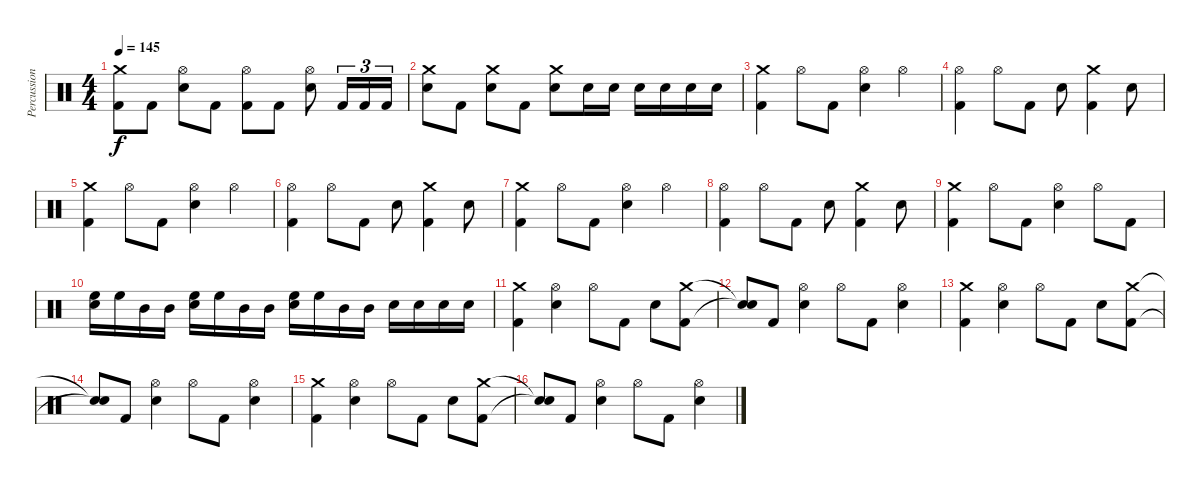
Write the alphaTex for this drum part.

\track ("Percussion" "Percussion") {instrument percussion}
\staff {score}
\articulation defaults
\ts (4 4)
\tempo 145
\clef neutral
\ks c
("Crash medium (hit)" "Kick (hit) 2").8{dy f} "Kick (hit) 2".8 ("Hi-Hat (open)" "Snare (hit) 2").8 "Kick (hit) 2".8 ("Hi-Hat (open)" "Kick (hit) 2").8 "Kick (hit) 2".8 ("Hi-Hat (open)" "Snare (hit) 2").8 "Kick (hit) 2".16{tu (3 2)} "Kick (hit) 2".16{tu (3 2)} "Kick (hit) 2".16{tu (3 2)} |
("Crash medium (hit)" "Snare (hit) 2").8 "Kick (hit) 2".8 ("Crash medium (hit)" "Snare (hit) 2").8 "Kick (hit) 2".8 ("Crash medium (hit)" "Snare (hit) 2").8 "Snare (hit) 2".16 "Snare (hit) 2".16 "Snare (hit) 2".16 "Snare (hit) 2".16 "Snare (hit) 2".16 "Snare (hit) 2".16 |
("Crash medium (hit)" "Kick (hit) 2").4 "Hi-Hat (open)".8 "Kick (hit) 2".8 ("Hi-Hat (open)" "Snare (hit) 2").4 "Hi-Hat (open)".4 |
("Hi-Hat (open)" "Kick (hit) 2").4 "Hi-Hat (open)".8 "Kick (hit) 2".8 "Snare (hit) 2".8 ("Crash medium (hit)" "Kick (hit) 2").4 "Snare (hit) 2".8 |
("Crash medium (hit)" "Kick (hit) 2").4 "Hi-Hat (open)".8 "Kick (hit) 2".8 ("Hi-Hat (open)" "Snare (hit) 2").4 "Hi-Hat (open)".4 |
("Hi-Hat (open)" "Kick (hit) 2").4 "Hi-Hat (open)".8 "Kick (hit) 2".8 "Snare (hit) 2".8 ("Crash medium (hit)" "Kick (hit) 2").4 "Snare (hit) 2".8 |
("Crash medium (hit)" "Kick (hit) 2").4 "Hi-Hat (open)".8 "Kick (hit) 2".8 ("Hi-Hat (open)" "Snare (hit) 2").4 "Hi-Hat (open)".4 |
("Hi-Hat (open)" "Kick (hit) 2").4 "Hi-Hat (open)".8 "Kick (hit) 2".8 "Snare (hit) 2".8 ("Crash medium (hit)" "Kick (hit) 2").4 "Snare (hit) 2".8 |
("Crash medium (hit)" "Kick (hit) 2").4 "Hi-Hat (open)".8 "Kick (hit) 2".8 ("Hi-Hat (open)" "Snare (hit) 2").4 "Hi-Hat (open)".8 "Kick (hit) 2".8 |
("High Floor Tom (hit)" "Snare (hit) 2").16 "High Floor Tom (hit)".16 "Mid Tom (hit)".16 "Mid Tom (hit)".16 ("High Floor Tom (hit)" "Snare (hit) 2").16 "High Floor Tom (hit)".16 "Mid Tom (hit)".16 "Mid Tom (hit)".16 ("High Floor Tom (hit)" "Snare (hit) 2").16 "High Floor Tom (hit)".16 "Mid Tom (hit)".16 "Mid Tom (hit)".16 "Snare (hit) 2".16 "Snare (hit) 2".16 "Snare (hit) 2".16 "Snare (hit) 2".16 |
("Crash medium (hit)" "Kick (hit) 2").4 ("Hi-Hat (open)" "Snare (hit) 2").4 "Hi-Hat (open)".8 "Kick (hit) 2".8 "Snare (hit) 2".8 ("Crash medium (hit)" "Kick (hit) 2").8 |
("Snare (hit)"{t} "Snare (hit)"{t}).8 "Kick (hit) 2".8 ("Hi-Hat (open)" "Snare (hit) 2").4 "Hi-Hat (open)".8 "Kick (hit) 2".8 ("Hi-Hat (open)" "Snare (hit) 2").4 |
("Crash medium (hit)" "Kick (hit) 2").4 ("Hi-Hat (open)" "Snare (hit) 2").4 "Hi-Hat (open)".8 "Kick (hit) 2".8 "Snare (hit) 2".8 ("Crash medium (hit)" "Kick (hit) 2").8 |
("Snare (hit)"{t} "Snare (hit)"{t}).8 "Kick (hit) 2".8 ("Hi-Hat (open)" "Snare (hit) 2").4 "Hi-Hat (open)".8 "Kick (hit) 2".8 ("Hi-Hat (open)" "Snare (hit) 2").4 |
("Crash medium (hit)" "Kick (hit) 2").4 ("Hi-Hat (open)" "Snare (hit) 2").4 "Hi-Hat (open)".8 "Kick (hit) 2".8 "Snare (hit) 2".8 ("Crash medium (hit)" "Kick (hit) 2").8 |
("Snare (hit)"{t} "Snare (hit)"{t}).8 "Kick (hit) 2".8 ("Hi-Hat (open)" "Snare (hit) 2").4 "Hi-Hat (open)".8 "Kick (hit) 2".8 ("Hi-Hat (open)" "Snare (hit) 2").4
